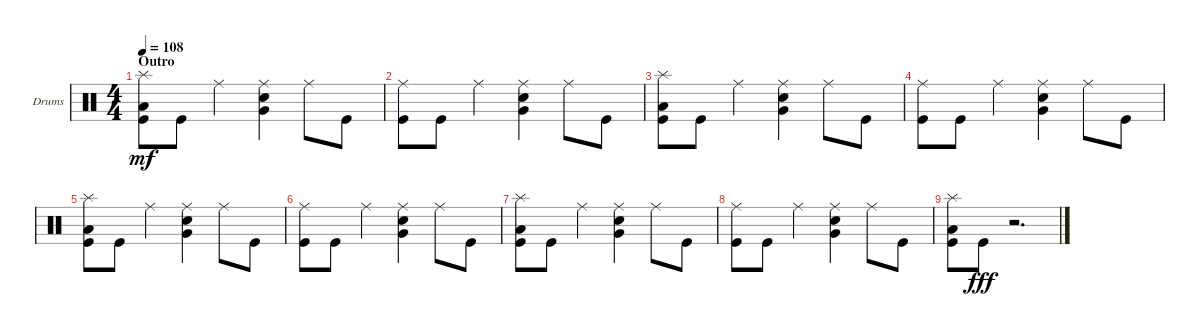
\bracketExtendMode groupsimilarinstruments
\firstSystemTrackNameOrientation horizontal
\otherSystemsTrackNameOrientation horizontal
\track ("Drumkit" "Drums") {instrument percussion}
\staff {score}
\articulation defaults
\ts (4 4)
\section ("" "Outro")
\tempo 108
\clef neutral
\ks c
("Kick (hit)" "Low Tom (hit)" "Splash (hit)").8{dy mf} "Kick (hit)".8 "Ride (middle)".4 ("Snare (hit) 2" "Ride (middle)" "Very Low Tom (hit)").4 "Ride (middle)".8 "Kick (hit)".8 |
("Ride (middle)" "Kick (hit)").8 "Kick (hit)".8 "Ride (middle)".4 ("Snare (hit) 2" "Ride (middle)" "Very Low Tom (hit)").4 "Ride (middle)".8 "Kick (hit)".8 |
("Kick (hit)" "Low Tom (hit)" "Splash (hit)").8 "Kick (hit)".8 "Ride (middle)".4 ("Snare (hit) 2" "Ride (middle)" "Very Low Tom (hit)").4 "Ride (middle)".8 "Kick (hit)".8 |
("Ride (middle)" "Kick (hit)").8 "Kick (hit)".8 "Ride (middle)".4 ("Snare (hit) 2" "Ride (middle)" "Very Low Tom (hit)").4 "Ride (middle)".8 "Kick (hit)".8 |
("Kick (hit)" "Low Tom (hit)" "Splash (hit)").8 "Kick (hit)".8 "Ride (middle)".4 ("Snare (hit) 2" "Ride (middle)" "Very Low Tom (hit)").4 "Ride (middle)".8 "Kick (hit)".8 |
("Ride (middle)" "Kick (hit)").8 "Kick (hit)".8 "Ride (middle)".4 ("Snare (hit) 2" "Ride (middle)" "Very Low Tom (hit)").4 "Ride (middle)".8 "Kick (hit)".8 |
("Kick (hit)" "Low Tom (hit)" "Splash (hit)").8 "Kick (hit)".8 "Ride (middle)".4 ("Snare (hit) 2" "Ride (middle)" "Very Low Tom (hit)").4 "Ride (middle)".8 "Kick (hit)".8 |
("Ride (middle)" "Kick (hit)").8 "Kick (hit)".8 "Ride (middle)".4 ("Snare (hit) 2" "Ride (middle)" "Very Low Tom (hit)").4 "Ride (middle)".8 "Kick (hit)".8 |
("Kick (hit)" "Low Tom (hit)" "Splash (hit)").8 "Kick (hit)".8{dy fff} r.2{d}
